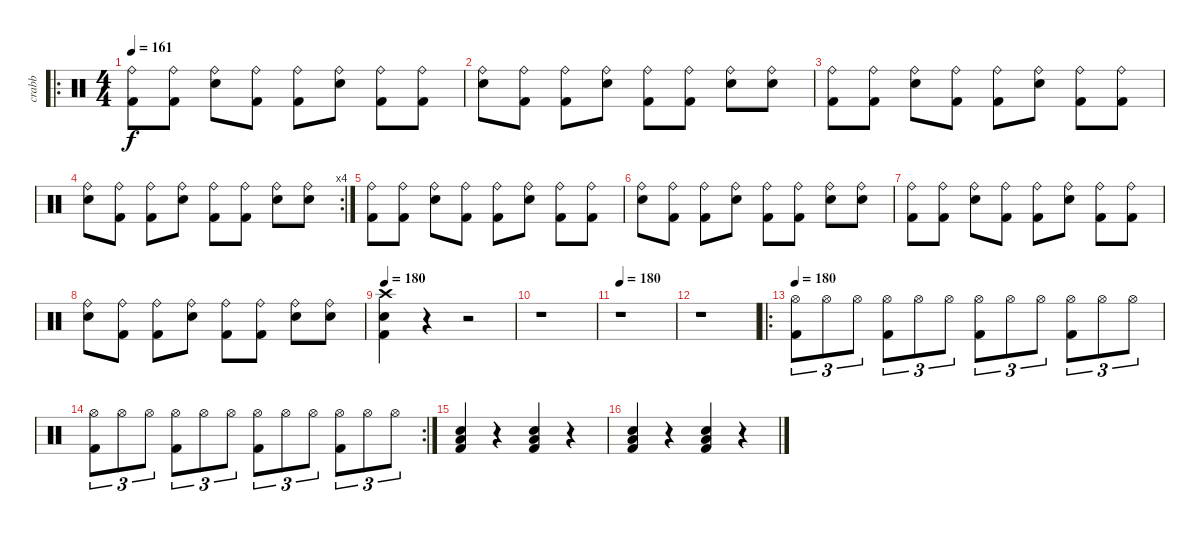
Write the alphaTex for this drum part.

\track ("crabb" "crabb") {instrument percussion}
\staff {score}
\articulation defaults
\ro
\ts (4 4)
\tempo 161
\clef neutral
\ks c
("Ride (bell)" "Kick (hit) 2").8{dy f} ("Ride (bell)" "Kick (hit) 2").8 ("Ride (bell)" "Electric Snare (hit)").8 ("Ride (bell)" "Kick (hit) 2").8 ("Ride (bell)" "Kick (hit) 2").8 ("Ride (bell)" "Electric Snare (hit)").8 ("Ride (bell)" "Kick (hit) 2").8 ("Ride (bell)" "Kick (hit) 2").8 |
("Ride (bell)" "Electric Snare (hit)").8 ("Ride (bell)" "Kick (hit) 2").8 ("Ride (bell)" "Kick (hit) 2").8 ("Ride (bell)" "Electric Snare (hit)").8 ("Ride (bell)" "Kick (hit) 2").8 ("Ride (bell)" "Kick (hit) 2").8 ("Ride (bell)" "Electric Snare (hit)").8 ("Ride (bell)" "Electric Snare (hit)").8 |
("Ride (bell)" "Kick (hit) 2").8 ("Ride (bell)" "Kick (hit) 2").8 ("Ride (bell)" "Electric Snare (hit)").8 ("Ride (bell)" "Kick (hit) 2").8 ("Ride (bell)" "Kick (hit) 2").8 ("Ride (bell)" "Electric Snare (hit)").8 ("Ride (bell)" "Kick (hit) 2").8 ("Ride (bell)" "Kick (hit) 2").8 |
\rc 4
("Ride (bell)" "Electric Snare (hit)").8 ("Ride (bell)" "Kick (hit) 2").8 ("Ride (bell)" "Kick (hit) 2").8 ("Ride (bell)" "Electric Snare (hit)").8 ("Ride (bell)" "Kick (hit) 2").8 ("Ride (bell)" "Kick (hit) 2").8 ("Ride (bell)" "Electric Snare (hit)").8 ("Ride (bell)" "Electric Snare (hit)").8 |
("Ride (bell)" "Kick (hit) 2").8 ("Ride (bell)" "Kick (hit) 2").8 ("Ride (bell)" "Electric Snare (hit)").8 ("Ride (bell)" "Kick (hit) 2").8 ("Ride (bell)" "Kick (hit) 2").8 ("Ride (bell)" "Electric Snare (hit)").8 ("Ride (bell)" "Kick (hit) 2").8 ("Ride (bell)" "Kick (hit) 2").8 |
("Ride (bell)" "Electric Snare (hit)").8 ("Ride (bell)" "Kick (hit) 2").8 ("Ride (bell)" "Kick (hit) 2").8 ("Ride (bell)" "Electric Snare (hit)").8 ("Ride (bell)" "Kick (hit) 2").8 ("Ride (bell)" "Kick (hit) 2").8 ("Ride (bell)" "Electric Snare (hit)").8 ("Ride (bell)" "Electric Snare (hit)").8 |
("Ride (bell)" "Kick (hit) 2").8 ("Ride (bell)" "Kick (hit) 2").8 ("Ride (bell)" "Electric Snare (hit)").8 ("Ride (bell)" "Kick (hit) 2").8 ("Ride (bell)" "Kick (hit) 2").8 ("Ride (bell)" "Electric Snare (hit)").8 ("Ride (bell)" "Kick (hit) 2").8 ("Ride (bell)" "Kick (hit) 2").8 |
("Ride (bell)" "Electric Snare (hit)").8 ("Ride (bell)" "Kick (hit) 2").8 ("Ride (bell)" "Kick (hit) 2").8 ("Ride (bell)" "Electric Snare (hit)").8 ("Ride (bell)" "Kick (hit) 2").8 ("Ride (bell)" "Kick (hit) 2").8 ("Ride (bell)" "Electric Snare (hit)").8 ("Ride (bell)" "Electric Snare (hit)").8 |
\tempo 180
("Crash high (hit)" "Electric Snare (hit)" "Kick (hit) 2").4 r.4 r.2 |
r.1 |
\tempo 180
r.1 |
r.1 |
\ro
\tempo 180
("Hi-Hat (open)" "Kick (hit) 2").8{tu (3 2)} "Hi-Hat (open)".8{tu (3 2)} "Hi-Hat (open)".8{tu (3 2)} ("Hi-Hat (open)" "Kick (hit) 2").8{tu (3 2)} "Hi-Hat (open)".8{tu (3 2)} "Hi-Hat (open)".8{tu (3 2)} ("Hi-Hat (open)" "Kick (hit) 2").8{tu (3 2)} "Hi-Hat (open)".8{tu (3 2)} "Hi-Hat (open)".8{tu (3 2)} ("Hi-Hat (open)" "Kick (hit) 2").8{tu (3 2)} "Hi-Hat (open)".8{tu (3 2)} "Hi-Hat (open)".8{tu (3 2)} |
\rc 2
("Hi-Hat (open)" "Kick (hit) 2").8{tu (3 2)} "Hi-Hat (open)".8{tu (3 2)} "Hi-Hat (open)".8{tu (3 2)} ("Hi-Hat (open)" "Kick (hit) 2").8{tu (3 2)} "Hi-Hat (open)".8{tu (3 2)} "Hi-Hat (open)".8{tu (3 2)} ("Hi-Hat (open)" "Kick (hit) 2").8{tu (3 2)} "Hi-Hat (open)".8{tu (3 2)} "Hi-Hat (open)".8{tu (3 2)} ("Hi-Hat (open)" "Kick (hit) 2").8{tu (3 2)} "Hi-Hat (open)".8{tu (3 2)} "Hi-Hat (open)".8{tu (3 2)} |
("Electric Snare (hit)" "Kick (hit) 2" "Low Floor Tom (hit)").4 r.4 ("Electric Snare (hit)" "Kick (hit) 2" "Low Floor Tom (hit)").4 r.4 |
("Electric Snare (hit)" "Kick (hit) 2" "Low Floor Tom (hit)").4 r.4 ("Electric Snare (hit)" "Kick (hit) 2" "Low Floor Tom (hit)").4 r.4
